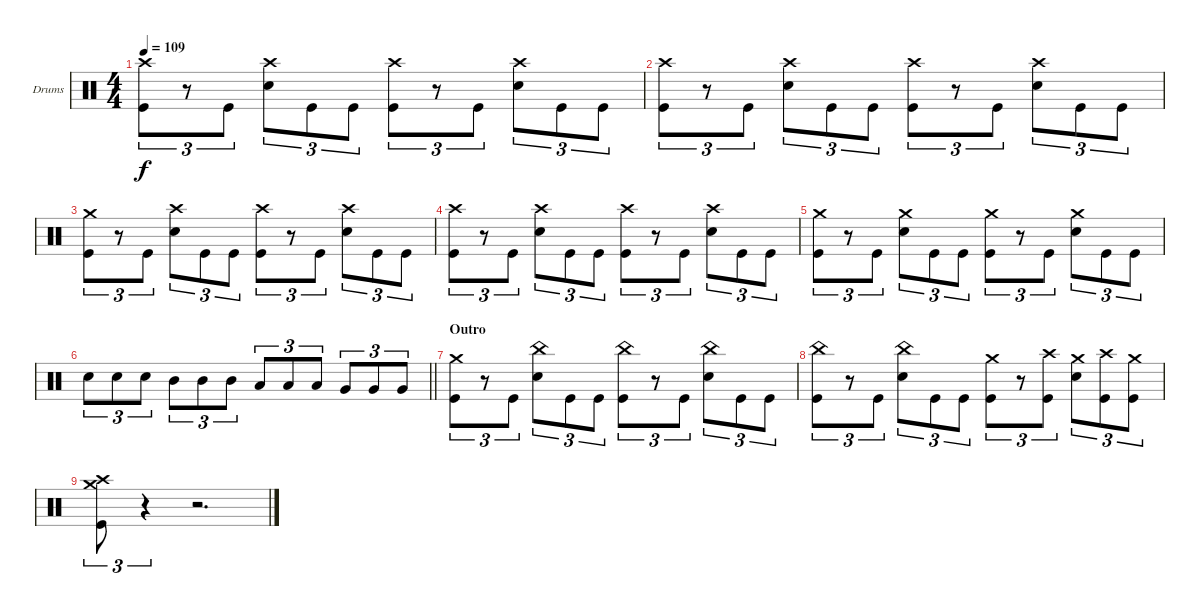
\bracketExtendMode groupsimilarinstruments
\firstSystemTrackNameOrientation horizontal
\otherSystemsTrackNameOrientation horizontal
\track ("Drumkit" "Drums") {instrument percussion}
\staff {score}
\articulation defaults
\ts (4 4)
\tempo 109
\clef neutral
\ks c
("Crash high (hit)" "Kick (hit)").8{tu (3 2) dy f} r.8{tu (3 2)} "Kick (hit)".8{tu (3 2)} ("Crash high (hit)" "Snare (hit) 2").8{tu (3 2)} "Kick (hit)".8{tu (3 2)} "Kick (hit)".8{tu (3 2)} ("Crash high (hit)" "Kick (hit)").8{tu (3 2)} r.8{tu (3 2)} "Kick (hit)".8{tu (3 2)} ("Crash high (hit)" "Snare (hit) 2").8{tu (3 2)} "Kick (hit)".8{tu (3 2)} "Kick (hit)".8{tu (3 2)} |
("Crash high (hit)" "Kick (hit)").8{tu (3 2)} r.8{tu (3 2)} "Kick (hit)".8{tu (3 2)} ("Crash high (hit)" "Snare (hit) 2").8{tu (3 2)} "Kick (hit)".8{tu (3 2)} "Kick (hit)".8{tu (3 2)} ("Crash high (hit)" "Kick (hit)").8{tu (3 2)} r.8{tu (3 2)} "Kick (hit)".8{tu (3 2)} ("Crash high (hit)" "Snare (hit) 2").8{tu (3 2)} "Kick (hit)".8{tu (3 2)} "Kick (hit)".8{tu (3 2)} |
("Crash medium (hit)" "Kick (hit)").8{tu (3 2)} r.8{tu (3 2)} "Kick (hit)".8{tu (3 2)} ("Crash high (hit)" "Snare (hit) 2").8{tu (3 2)} "Kick (hit)".8{tu (3 2)} "Kick (hit)".8{tu (3 2)} ("Crash high (hit)" "Kick (hit)").8{tu (3 2)} r.8{tu (3 2)} "Kick (hit)".8{tu (3 2)} ("Crash high (hit)" "Snare (hit) 2").8{tu (3 2)} "Kick (hit)".8{tu (3 2)} "Kick (hit)".8{tu (3 2)} |
("Crash high (hit)" "Kick (hit)").8{tu (3 2)} r.8{tu (3 2)} "Kick (hit)".8{tu (3 2)} ("Crash high (hit)" "Snare (hit) 2").8{tu (3 2)} "Kick (hit)".8{tu (3 2)} "Kick (hit)".8{tu (3 2)} ("Crash high (hit)" "Kick (hit)").8{tu (3 2)} r.8{tu (3 2)} "Kick (hit)".8{tu (3 2)} ("Crash high (hit)" "Snare (hit) 2").8{tu (3 2)} "Kick (hit)".8{tu (3 2)} "Kick (hit)".8{tu (3 2)} |
("Crash medium (hit)" "Kick (hit)").8{tu (3 2)} r.8{tu (3 2)} "Kick (hit)".8{tu (3 2)} ("Crash medium (hit)" "Snare (hit) 2").8{tu (3 2)} "Kick (hit)".8{tu (3 2)} "Kick (hit)".8{tu (3 2)} ("Crash medium (hit)" "Kick (hit)").8{tu (3 2)} r.8{tu (3 2)} "Kick (hit)".8{tu (3 2)} ("Crash medium (hit)" "Snare (hit) 2").8{tu (3 2)} "Kick (hit)".8{tu (3 2)} "Kick (hit)".8{tu (3 2)} |
\barLineRight lightlight "Snare (hit) 2".8{tu (3 2)} "Snare (hit) 2".8{tu (3 2)} "Snare (hit) 2".8{tu (3 2)} "Mid Tom (hit)".8{tu (3 2)} "Mid Tom (hit)".8{tu (3 2)} "Mid Tom (hit)".8{tu (3 2)} "Low Tom (hit)".8{tu (3 2)} "Low Tom (hit)".8{tu (3 2)} "Low Tom (hit)".8{tu (3 2)} "Very Low Tom (hit)".8{tu (3 2)} "Very Low Tom (hit)".8{tu (3 2)} "Very Low Tom (hit)".8{tu (3 2)}
|
\section ("" "Outro")
("Crash medium (hit)" "Kick (hit)").8{tu (3 2)} r.8{tu (3 2)} "Kick (hit)".8{tu (3 2)} ("China (hit)" "Snare (hit) 2").8{tu (3 2)} "Kick (hit)".8{tu (3 2)} "Kick (hit)".8{tu (3 2)} ("China (hit)" "Kick (hit)").8{tu (3 2)} r.8{tu (3 2)} "Kick (hit)".8{tu (3 2)} ("China (hit)" "Snare (hit) 2").8{tu (3 2)} "Kick (hit)".8{tu (3 2)} "Kick (hit)".8{tu (3 2)} |
("China (hit)" "Kick (hit)").8{tu (3 2)} r.8{tu (3 2)} "Kick (hit)".8{tu (3 2)} ("China (hit)" "Snare (hit) 2").8{tu (3 2)} "Kick (hit)".8{tu (3 2)} "Kick (hit)".8{tu (3 2)} ("Crash medium (hit)" "Kick (hit)").8{tu (3 2)} r.8{tu (3 2)} ("Crash high (hit)" "Kick (hit)").8{tu (3 2)} ("Crash medium (hit)" "Snare (hit) 2").8{tu (3 2)} ("Crash high (hit)" "Kick (hit)").8{tu (3 2)} ("Crash medium (hit)" "Kick (hit)").8{tu (3 2)} |
("Crash high (hit)" "Crash medium (hit)" "Kick (hit)").8{tu (3 2)} r.4{tu (3 2)} r.2{d}
